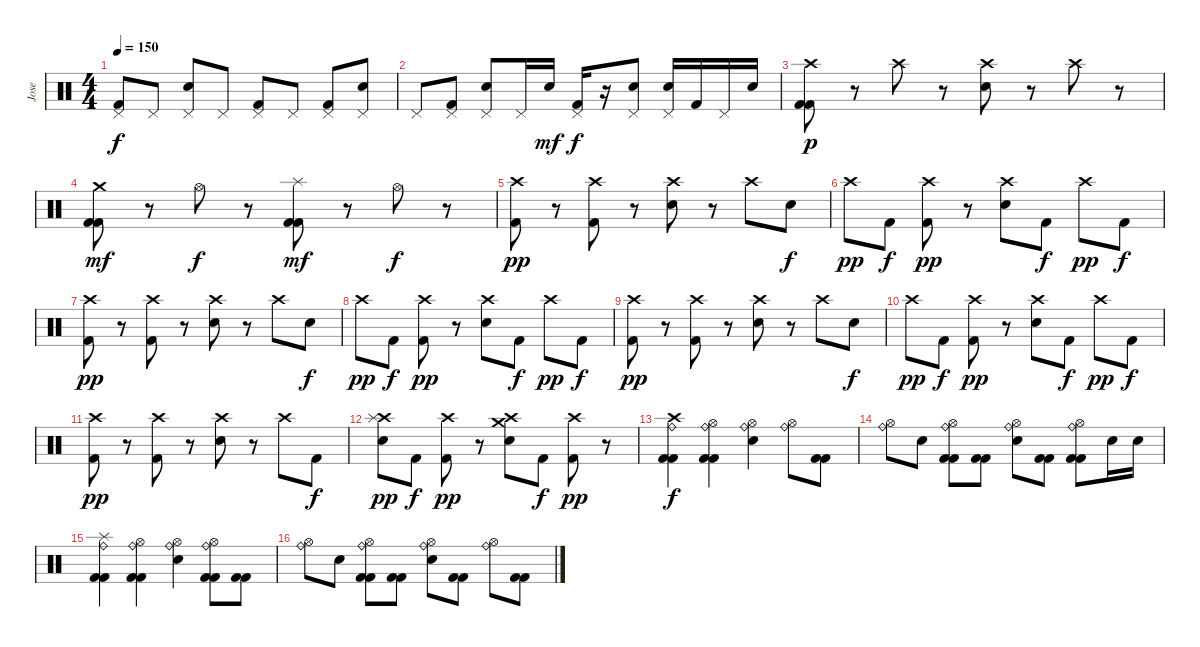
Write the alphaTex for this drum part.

\track ("Jose" "Jose") {instrument percussion}
\staff {score}
\articulation defaults
\ts (4 4)
\tempo 150
\clef neutral
\ks c
("Pedal Hi-Hat (hit)" "Kick (hit) 2").8{dy f} "Pedal Hi-Hat (hit)".8 ("Pedal Hi-Hat (hit)" "Electric Snare (hit)").8 "Pedal Hi-Hat (hit)".8 ("Pedal Hi-Hat (hit)" "Kick (hit) 2").8 "Pedal Hi-Hat (hit)".8 ("Pedal Hi-Hat (hit)" "Kick (hit) 2").8 ("Pedal Hi-Hat (hit)" "Electric Snare (hit)").8 |
"Pedal Hi-Hat (hit)".8 ("Pedal Hi-Hat (hit)" "Kick (hit) 2").8 ("Pedal Hi-Hat (hit)" "Electric Snare (hit)").8 "Pedal Hi-Hat (hit)".16 "Electric Snare (hit)".16{dy mf} ("Pedal Hi-Hat (hit)" "Kick (hit) 2").16{dy f} r.16 ("Pedal Hi-Hat (hit)" "Electric Snare (hit)").8 ("Pedal Hi-Hat (hit)" "Electric Snare (hit)").16 "Kick (hit) 2".16 "Pedal Hi-Hat (hit)".16 "Electric Snare (hit)".16 |
("Crash high (hit)" "Kick (hit) 2" "Kick (hit) 2").8{dy p} r.8 "Crash high (hit)".8 r.8 ("Crash high (hit)" "Electric Snare (hit)").8 r.8 "Crash high (hit)".8 r.8 |
("Crash medium (hit)" "Kick (hit) 2" "Kick (hit) 2").8{dy mf} r.8 "Hi-Hat (open)".8{dy f} r.8 ("Splash (hit)" "Kick (hit) 2" "Kick (hit) 2").8{dy mf} r.8 "Hi-Hat (open)".8{dy f} r.8 |
("Crash high (hit)" "Kick (hit) 2").8{dy pp} r.8 ("Crash high (hit)" "Kick (hit) 2").8 r.8 ("Crash high (hit)" "Electric Snare (hit)").8 r.8 "Crash high (hit)".8 "Electric Snare (hit)".8{dy f} |
"Crash high (hit)".8{dy pp} "Kick (hit) 2".8{dy f} ("Crash high (hit)" "Kick (hit) 2").8{dy pp} r.8 ("Crash high (hit)" "Electric Snare (hit)").8 "Kick (hit) 2".8{dy f} "Crash high (hit)".8{dy pp} "Kick (hit) 2".8{dy f} |
("Crash high (hit)" "Kick (hit) 2").8{dy pp} r.8 ("Crash high (hit)" "Kick (hit) 2").8 r.8 ("Crash high (hit)" "Electric Snare (hit)").8 r.8 "Crash high (hit)".8 "Electric Snare (hit)".8{dy f} |
"Crash high (hit)".8{dy pp} "Kick (hit) 2".8{dy f} ("Crash high (hit)" "Kick (hit) 2").8{dy pp} r.8 ("Crash high (hit)" "Electric Snare (hit)").8 "Kick (hit) 2".8{dy f} "Crash high (hit)".8{dy pp} "Kick (hit) 2".8{dy f} |
("Crash high (hit)" "Kick (hit) 2").8{dy pp} r.8 ("Crash high (hit)" "Kick (hit) 2").8 r.8 ("Crash high (hit)" "Electric Snare (hit)").8 r.8 "Crash high (hit)".8 "Electric Snare (hit)".8{dy f} |
"Crash high (hit)".8{dy pp} "Kick (hit) 2".8{dy f} ("Crash high (hit)" "Kick (hit) 2").8{dy pp} r.8 ("Crash high (hit)" "Electric Snare (hit)").8 "Kick (hit) 2".8{dy f} "Crash high (hit)".8{dy pp} "Kick (hit) 2".8{dy f} |
("Crash high (hit)" "Kick (hit) 2").8{dy pp} r.8 ("Crash high (hit)" "Kick (hit) 2").8 r.8 ("Crash high (hit)" "Electric Snare (hit)").8 r.8 "Crash high (hit)".8 "Kick (hit) 2".8{dy f} |
("Crash high (hit)" "Splash (hit)" "Electric Snare (hit)").8{dy pp} "Kick (hit) 2".8{dy f} ("Crash high (hit)" "Kick (hit) 2").8{dy pp} r.8 ("Crash high (hit)" "Crash medium (hit)" "Electric Snare (hit)").8 "Kick (hit) 2".8{dy f} ("Crash high (hit)" "Kick (hit) 2").8{dy pp} r.8 |
("Ride (bell)" "Crash high (hit)" "Kick (hit) 2" "Kick (hit) 2").4{dy f} ("Ride (bell)" "Hi-Hat (open)" "Kick (hit) 2" "Kick (hit) 2").4 ("Ride (bell)" "Hi-Hat (open)" "Electric Snare (hit)").4 ("Ride (bell)" "Hi-Hat (open)").8 ("Kick (hit) 2" "Kick (hit) 2").8 |
("Ride (bell)" "Hi-Hat (open)").8 "Electric Snare (hit)".8 ("Ride (bell)" "Hi-Hat (open)" "Kick (hit) 2" "Kick (hit) 2").8 ("Kick (hit) 2" "Kick (hit) 2").8 ("Ride (bell)" "Hi-Hat (open)" "Electric Snare (hit)").8 ("Kick (hit) 2" "Kick (hit) 2").8 ("Ride (bell)" "Hi-Hat (open)" "Kick (hit) 2" "Kick (hit) 2").8 "Electric Snare (hit)".16 "Electric Snare (hit)".16 |
("Ride (bell)" "Splash (hit)" "Kick (hit) 2" "Kick (hit) 2").4 ("Ride (bell)" "Hi-Hat (open)" "Kick (hit) 2" "Kick (hit) 2").4 ("Ride (bell)" "Hi-Hat (open)" "Electric Snare (hit)").4 ("Ride (bell)" "Hi-Hat (open)" "Kick (hit) 2" "Kick (hit) 2").8 ("Kick (hit) 2" "Kick (hit) 2").8 |
("Ride (bell)" "Hi-Hat (open)").8 "Electric Snare (hit)".8 ("Ride (bell)" "Hi-Hat (open)" "Kick (hit) 2" "Kick (hit) 2").8 ("Kick (hit) 2" "Kick (hit) 2").8 ("Ride (bell)" "Hi-Hat (open)" "Electric Snare (hit)").8 ("Kick (hit) 2" "Kick (hit) 2").8 ("Ride (bell)" "Hi-Hat (open)").8 ("Kick (hit) 2" "Kick (hit) 2").8
